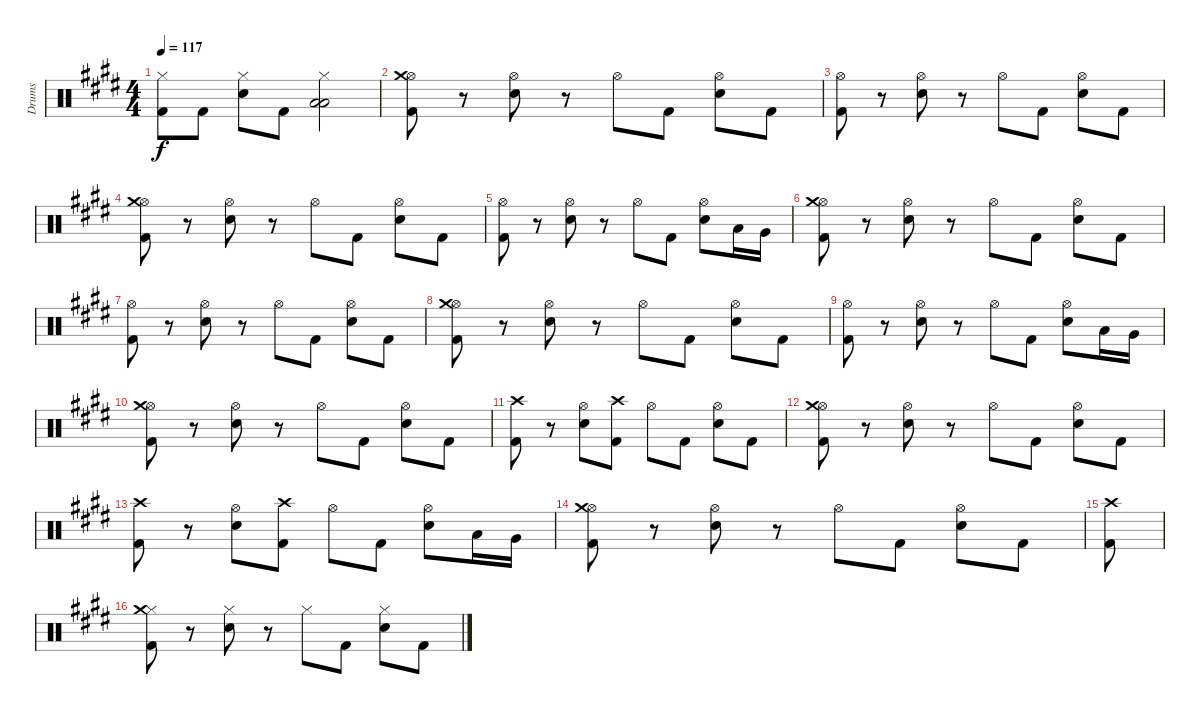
\track ("Drums" "Drums") {instrument percussion}
\staff {score}
\articulation defaults
\ts (4 4)
\tempo 117
\clef neutral
\ks c#minor
("Hi-Hat (closed)" "Kick (hit) 2").8{dy f} "Kick (hit) 2".8 ("Hi-Hat (closed)" "Snare (hit) 2").8 "Kick (hit) 2".8 ("Hi-Hat (closed)" "Low Floor Tom (hit)" "Low Tom (hit)").2 |
("Hi-Hat (open)" "Kick (hit) 2" "Crash medium (hit)").8 r.8 ("Hi-Hat (open)" "Snare (hit) 2").8 r.8 "Hi-Hat (open)".8 "Kick (hit) 2".8 ("Hi-Hat (open)" "Snare (hit) 2").8 "Kick (hit) 2".8 |
("Hi-Hat (open)" "Kick (hit) 2").8 r.8 ("Hi-Hat (open)" "Snare (hit) 2").8 r.8 "Hi-Hat (open)".8 "Kick (hit) 2".8 ("Hi-Hat (open)" "Snare (hit) 2").8 "Kick (hit) 2".8 |
("Hi-Hat (open)" "Kick (hit) 2" "Crash medium (hit)").8 r.8 ("Hi-Hat (open)" "Snare (hit) 2").8 r.8 "Hi-Hat (open)".8 "Kick (hit) 2".8 ("Hi-Hat (open)" "Snare (hit) 2").8 "Kick (hit) 2".8 |
("Hi-Hat (open)" "Kick (hit) 2").8 r.8 ("Hi-Hat (open)" "Snare (hit) 2").8 r.8 "Hi-Hat (open)".8 "Kick (hit) 2".8 ("Hi-Hat (open)" "Snare (hit) 2").8 "Low Tom (hit)".16 "Very Low Tom (hit)".16 |
("Hi-Hat (open)" "Kick (hit) 2" "Crash medium (hit)").8 r.8 ("Hi-Hat (open)" "Snare (hit) 2").8 r.8 "Hi-Hat (open)".8 "Kick (hit) 2".8 ("Hi-Hat (open)" "Snare (hit) 2").8 "Kick (hit) 2".8 |
("Hi-Hat (open)" "Kick (hit) 2").8 r.8 ("Hi-Hat (open)" "Snare (hit) 2").8 r.8 "Hi-Hat (open)".8 "Kick (hit) 2".8 ("Hi-Hat (open)" "Snare (hit) 2").8 "Kick (hit) 2".8 |
("Hi-Hat (open)" "Kick (hit) 2" "Crash medium (hit)").8 r.8 ("Hi-Hat (open)" "Snare (hit) 2").8 r.8 "Hi-Hat (open)".8 "Kick (hit) 2".8 ("Hi-Hat (open)" "Snare (hit) 2").8 "Kick (hit) 2".8 |
("Hi-Hat (open)" "Kick (hit) 2").8 r.8 ("Hi-Hat (open)" "Snare (hit) 2").8 r.8 "Hi-Hat (open)".8 "Kick (hit) 2".8 ("Hi-Hat (open)" "Snare (hit) 2").8 "Low Tom (hit)".16 "Very Low Tom (hit)".16 |
("Hi-Hat (open)" "Kick (hit) 2" "Crash medium (hit)").8 r.8 ("Hi-Hat (open)" "Snare (hit) 2").8 r.8 "Hi-Hat (open)".8 "Kick (hit) 2".8 ("Hi-Hat (open)" "Snare (hit) 2").8 "Kick (hit) 2".8 |
("Kick (hit) 2" "Crash high (hit)").8 r.8 ("Hi-Hat (open)" "Snare (hit) 2").8 ("Crash high (hit)" "Kick (hit) 2").8 "Hi-Hat (open)".8 "Kick (hit) 2".8 ("Hi-Hat (open)" "Snare (hit) 2").8 "Kick (hit) 2".8 |
("Hi-Hat (open)" "Kick (hit) 2" "Crash medium (hit)").8 r.8 ("Hi-Hat (open)" "Snare (hit) 2").8 r.8 "Hi-Hat (open)".8 "Kick (hit) 2".8 ("Hi-Hat (open)" "Snare (hit) 2").8 "Kick (hit) 2".8 |
("Kick (hit) 2" "Crash high (hit)").8 r.8 ("Hi-Hat (open)" "Snare (hit) 2").8 ("Crash high (hit)" "Kick (hit) 2").8 "Hi-Hat (open)".8 "Kick (hit) 2".8 ("Hi-Hat (open)" "Snare (hit) 2").8 "Low Tom (hit)".16 "Very Low Tom (hit)".16 |
("Hi-Hat (open)" "Kick (hit) 2" "Crash medium (hit)").8 r.8 ("Hi-Hat (open)" "Snare (hit) 2").8 r.8 "Hi-Hat (open)".8 "Kick (hit) 2".8 ("Hi-Hat (open)" "Snare (hit) 2").8 "Kick (hit) 2".8 |
("Kick (hit) 2" "Crash high (hit)").8 |
("Hi-Hat (closed)" "Kick (hit) 2" "Crash medium (hit)").8 r.8 ("Hi-Hat (closed)" "Snare (hit) 2").8 r.8 "Hi-Hat (closed)".8 "Kick (hit) 2".8 ("Hi-Hat (closed)" "Snare (hit) 2").8 "Kick (hit) 2".8
